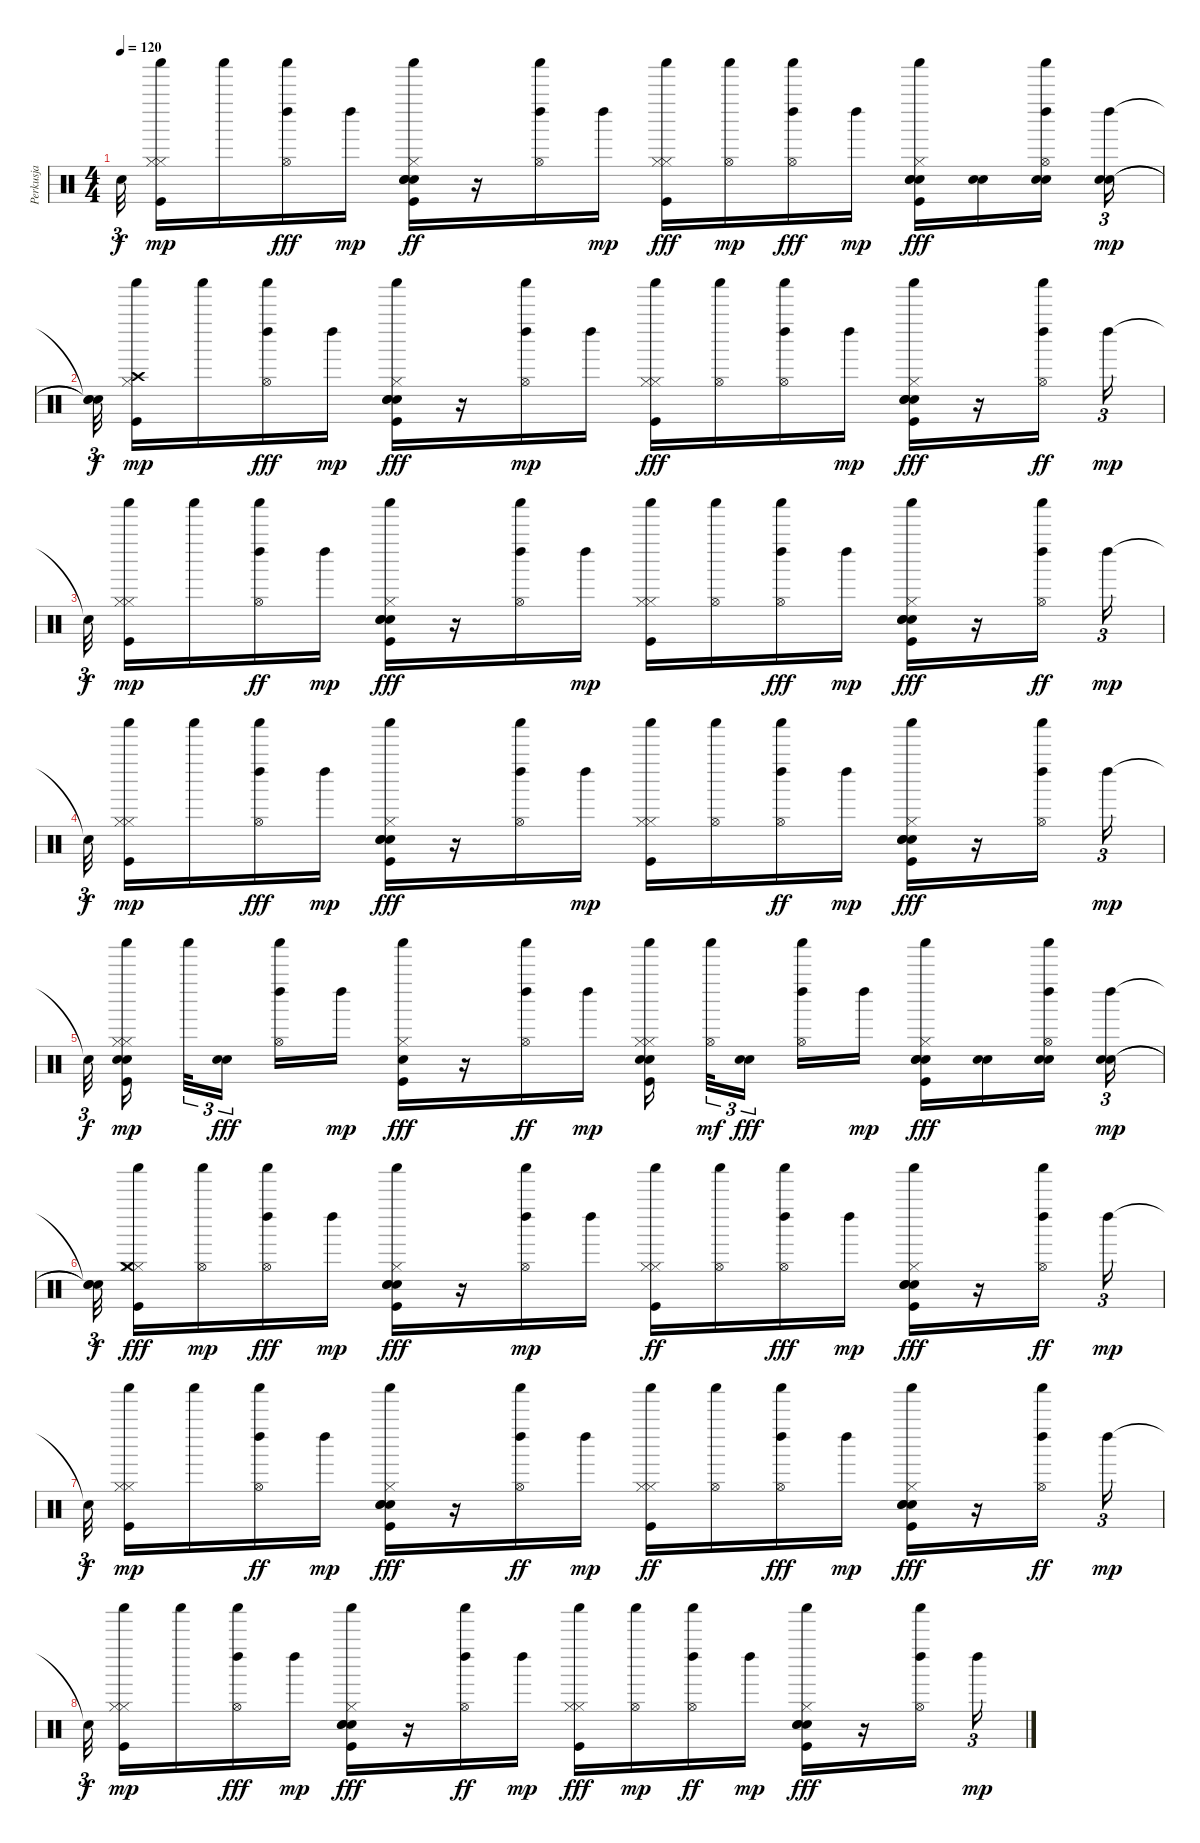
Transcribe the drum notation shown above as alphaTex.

\track ("Perkusja" "Perkusja") {instrument percussion}
\staff {score}
\articulation defaults
\ts (4 4)
\tempo 120
\clef neutral
\ks c "Snare (hit)"{t}.32{tu (3 2) dy f}
("Hi-Hat (closed)" "Kick (hit)" "Hi-Hat (closed)" "Shaker (hit)").16{dy mp} "Shaker (hit)".16 ("Hi-Hat (open)" "Left Maraca (hit)" "Shaker (hit)").16{dy fff} "Left Maraca (hit)".16{dy mp} ("Kick (hit)" "Snare (hit) 2" "Hand Clap (hit)" "Electric Snare (hit)" "Hi-Hat (closed)" "Shaker (hit)").16{dy ff} r.16 ("Hi-Hat (open)" "Left Maraca (hit)" "Shaker (hit)").16 "Left Maraca (hit)".16{dy mp} ("Hi-Hat (closed)" "Kick (hit)" "Shaker (hit)" "Hi-Hat (closed)").16{dy fff} ("Hi-Hat (open)" "Shaker (hit)").16{dy mp} ("Hi-Hat (open)" "Left Maraca (hit)" "Shaker (hit)").16{dy fff} "Left Maraca (hit)".16{dy mp} ("Kick (hit)" "Snare (hit) 2" "Electric Snare (hit)" "Hi-Hat (closed)" "Shaker (hit)" "Hand Clap (hit)").16{dy fff} ("Snare (hit) 2" "Electric Snare (hit)").16 ("Snare (hit) 2" "Electric Snare (hit)" "Hi-Hat (open)" "Left Maraca (hit)" "Shaker (hit)").16 ("Snare (hit) 2" "Electric Snare (hit)" "Left Maraca (hit)").16{tu (3 2) dy mp} |
("Snare (hit)"{t} "Snare (hit)"{t} "Snare (hit)"{t}).32{tu (3 2) dy f} ("Hi-Hat (closed)" "Kick (hit)" "Crash high (hit)" "Shaker (hit)").16{dy mp} "Shaker (hit)".16 ("Hi-Hat (open)" "Left Maraca (hit)" "Shaker (hit)").16{dy fff} "Left Maraca (hit)".16{dy mp} ("Kick (hit)" "Snare (hit) 2" "Electric Snare (hit)" "Hi-Hat (closed)" "Shaker (hit)" "Hand Clap (hit)").16{dy fff} r.16 ("Hi-Hat (open)" "Left Maraca (hit)" "Shaker (hit)").16{dy mp} "Left Maraca (hit)".16 ("Hi-Hat (closed)" "Kick (hit)" "Shaker (hit)" "Hi-Hat (closed)").16{dy fff} ("Shaker (hit)" "Hi-Hat (open)").16 ("Left Maraca (hit)" "Shaker (hit)" "Hi-Hat (open)").16 "Left Maraca (hit)".16{dy mp} ("Kick (hit)" "Snare (hit) 2" "Hand Clap (hit)" "Electric Snare (hit)" "Shaker (hit)" "Hi-Hat (closed)").16{dy fff} r.16 ("Hi-Hat (open)" "Left Maraca (hit)" "Shaker (hit)").16{dy ff} "Left Maraca (hit)".16{tu (3 2) dy mp} |
"Snare (hit)"{t}.32{tu (3 2) dy f} ("Hi-Hat (closed)" "Kick (hit)" "Hi-Hat (closed)" "Shaker (hit)").16{dy mp} "Shaker (hit)".16 ("Hi-Hat (open)" "Left Maraca (hit)" "Shaker (hit)").16{dy ff} "Left Maraca (hit)".16{dy mp} ("Kick (hit)" "Snare (hit) 2" "Electric Snare (hit)" "Hi-Hat (closed)" "Shaker (hit)" "Hand Clap (hit)").16{dy fff} r.16 ("Hi-Hat (open)" "Left Maraca (hit)" "Shaker (hit)").16 "Left Maraca (hit)".16{dy mp} ("Hi-Hat (closed)" "Kick (hit)" "Hi-Hat (closed)" "Shaker (hit)").16 ("Hi-Hat (open)" "Shaker (hit)").16 ("Hi-Hat (open)" "Left Maraca (hit)" "Shaker (hit)").16{dy fff} "Left Maraca (hit)".16{dy mp} ("Kick (hit)" "Snare (hit) 2" "Hand Clap (hit)" "Electric Snare (hit)" "Hi-Hat (closed)" "Shaker (hit)").16{dy fff} r.16 ("Hi-Hat (open)" "Left Maraca (hit)" "Shaker (hit)").16{dy ff} "Left Maraca (hit)".16{tu (3 2) dy mp} |
"Snare (hit)"{t}.32{tu (3 2) dy f} ("Hi-Hat (closed)" "Kick (hit)" "Hi-Hat (closed)" "Shaker (hit)").16{dy mp} "Shaker (hit)".16 ("Hi-Hat (open)" "Left Maraca (hit)" "Shaker (hit)").16{dy fff} "Left Maraca (hit)".16{dy mp} ("Snare (hit) 2" "Electric Snare (hit)" "Kick (hit)" "Hand Clap (hit)" "Hi-Hat (closed)" "Shaker (hit)").16{dy fff} r.16 ("Hi-Hat (open)" "Left Maraca (hit)" "Shaker (hit)").16 "Left Maraca (hit)".16{dy mp} ("Hi-Hat (closed)" "Kick (hit)" "Hi-Hat (closed)" "Shaker (hit)").16 ("Hi-Hat (open)" "Shaker (hit)").16 ("Hi-Hat (open)" "Left Maraca (hit)" "Shaker (hit)").16{dy ff} "Left Maraca (hit)".16{dy mp} ("Kick (hit)" "Snare (hit) 2" "Hand Clap (hit)" "Electric Snare (hit)" "Hi-Hat (closed)" "Shaker (hit)").16{dy fff} r.16 ("Hi-Hat (open)" "Left Maraca (hit)" "Shaker (hit)").16 "Left Maraca (hit)".16{tu (3 2) dy mp} |
"Snare (hit)"{t}.32{tu (3 2) dy f} ("Hi-Hat (closed)" "Kick (hit)" "Snare (hit) 2" "Electric Snare (hit)" "Hi-Hat (closed)" "Shaker (hit)").16{dy mp} "Shaker (hit)".32{tu (3 2)} ("Snare (hit) 2" "Electric Snare (hit)").16{tu (3 2) dy fff} ("Hi-Hat (open)" "Left Maraca (hit)" "Shaker (hit)").16 "Left Maraca (hit)".16{dy mp} ("Kick (hit)" "Hand Clap (hit)" "Hi-Hat (closed)" "Shaker (hit)").16{dy fff} r.16 ("Hi-Hat (open)" "Left Maraca (hit)" "Shaker (hit)").16{dy ff} "Left Maraca (hit)".16{dy mp} ("Hi-Hat (closed)" "Kick (hit)" "Snare (hit) 2" "Electric Snare (hit)" "Hi-Hat (closed)" "Shaker (hit)").16 ("Shaker (hit)" "Hi-Hat (open)").32{tu (3 2) dy mf} ("Snare (hit) 2" "Electric Snare (hit)").16{tu (3 2) dy fff} ("Hi-Hat (open)" "Left Maraca (hit)" "Shaker (hit)").16 "Left Maraca (hit)".16{dy mp} ("Kick (hit)" "Snare (hit) 2" "Electric Snare (hit)" "Hi-Hat (closed)" "Shaker (hit)" "Hand Clap (hit)").16{dy fff} ("Snare (hit) 2" "Electric Snare (hit)").16 ("Snare (hit) 2" "Electric Snare (hit)" "Hi-Hat (open)" "Left Maraca (hit)" "Shaker (hit)").16 ("Snare (hit) 2" "Electric Snare (hit)" "Left Maraca (hit)").16{tu (3 2) dy mp} |
("Snare (hit)"{t} "Snare (hit)"{t} "Snare (hit)"{t}).32{tu (3 2) dy f} ("Hi-Hat (closed)" "Kick (hit)" "Hi-Hat (closed)" "Shaker (hit)" "Crash medium (hit)").16{dy fff} ("Hi-Hat (open)" "Shaker (hit)").16{dy mp} ("Hi-Hat (open)" "Left Maraca (hit)" "Shaker (hit)").16{dy fff} "Left Maraca (hit)".16{dy mp} ("Kick (hit)" "Snare (hit) 2" "Electric Snare (hit)" "Hi-Hat (closed)" "Shaker (hit)" "Hand Clap (hit)").16{dy fff} r.16 ("Hi-Hat (open)" "Left Maraca (hit)" "Shaker (hit)").16{dy mp} "Left Maraca (hit)".16 ("Hi-Hat (closed)" "Kick (hit)" "Shaker (hit)" "Hi-Hat (closed)").16{dy ff} ("Shaker (hit)" "Hi-Hat (open)").16 ("Hi-Hat (open)" "Left Maraca (hit)" "Shaker (hit)").16{dy fff} "Left Maraca (hit)".16{dy mp} ("Kick (hit)" "Snare (hit) 2" "Hand Clap (hit)" "Electric Snare (hit)" "Hi-Hat (closed)" "Shaker (hit)").16{dy fff} r.16 ("Hi-Hat (open)" "Left Maraca (hit)" "Shaker (hit)").16{dy ff} "Left Maraca (hit)".16{tu (3 2) dy mp} |
"Snare (hit)"{t}.32{tu (3 2) dy f} ("Hi-Hat (closed)" "Kick (hit)" "Hi-Hat (closed)" "Shaker (hit)").16{dy mp} "Shaker (hit)".16 ("Hi-Hat (open)" "Left Maraca (hit)" "Shaker (hit)").16{dy ff} "Left Maraca (hit)".16{dy mp} ("Kick (hit)" "Snare (hit) 2" "Electric Snare (hit)" "Hi-Hat (closed)" "Shaker (hit)" "Hand Clap (hit)").16{dy fff} r.16 ("Hi-Hat (open)" "Left Maraca (hit)" "Shaker (hit)").16{dy ff} "Left Maraca (hit)".16{dy mp} ("Hi-Hat (closed)" "Kick (hit)" "Shaker (hit)" "Hi-Hat (closed)").16{dy ff} ("Shaker (hit)" "Hi-Hat (open)").16 ("Hi-Hat (open)" "Left Maraca (hit)" "Shaker (hit)").16{dy fff} "Left Maraca (hit)".16{dy mp} ("Kick (hit)" "Snare (hit) 2" "Hand Clap (hit)" "Electric Snare (hit)" "Hi-Hat (closed)" "Shaker (hit)").16{dy fff} r.16 ("Hi-Hat (open)" "Left Maraca (hit)" "Shaker (hit)").16{dy ff} "Left Maraca (hit)".16{tu (3 2) dy mp} |
"Snare (hit)"{t}.32{tu (3 2) dy f} ("Hi-Hat (closed)" "Kick (hit)" "Hi-Hat (closed)" "Shaker (hit)").16{dy mp} "Shaker (hit)".16 ("Hi-Hat (open)" "Left Maraca (hit)" "Shaker (hit)").16{dy fff} "Left Maraca (hit)".16{dy mp} ("Snare (hit) 2" "Electric Snare (hit)" "Kick (hit)" "Hand Clap (hit)" "Hi-Hat (closed)" "Shaker (hit)").16{dy fff} r.16 ("Hi-Hat (open)" "Left Maraca (hit)" "Shaker (hit)").16{dy ff} "Left Maraca (hit)".16{dy mp} ("Hi-Hat (closed)" "Kick (hit)" "Shaker (hit)" "Hi-Hat (closed)").16{dy fff} ("Hi-Hat (open)" "Shaker (hit)").16{dy mp} ("Hi-Hat (open)" "Left Maraca (hit)" "Shaker (hit)").16{dy ff} "Left Maraca (hit)".16{dy mp} ("Kick (hit)" "Snare (hit) 2" "Hand Clap (hit)" "Electric Snare (hit)" "Hi-Hat (closed)" "Shaker (hit)").16{dy fff} r.16 ("Hi-Hat (open)" "Left Maraca (hit)" "Shaker (hit)").16 "Left Maraca (hit)".16{tu (3 2) dy mp}
